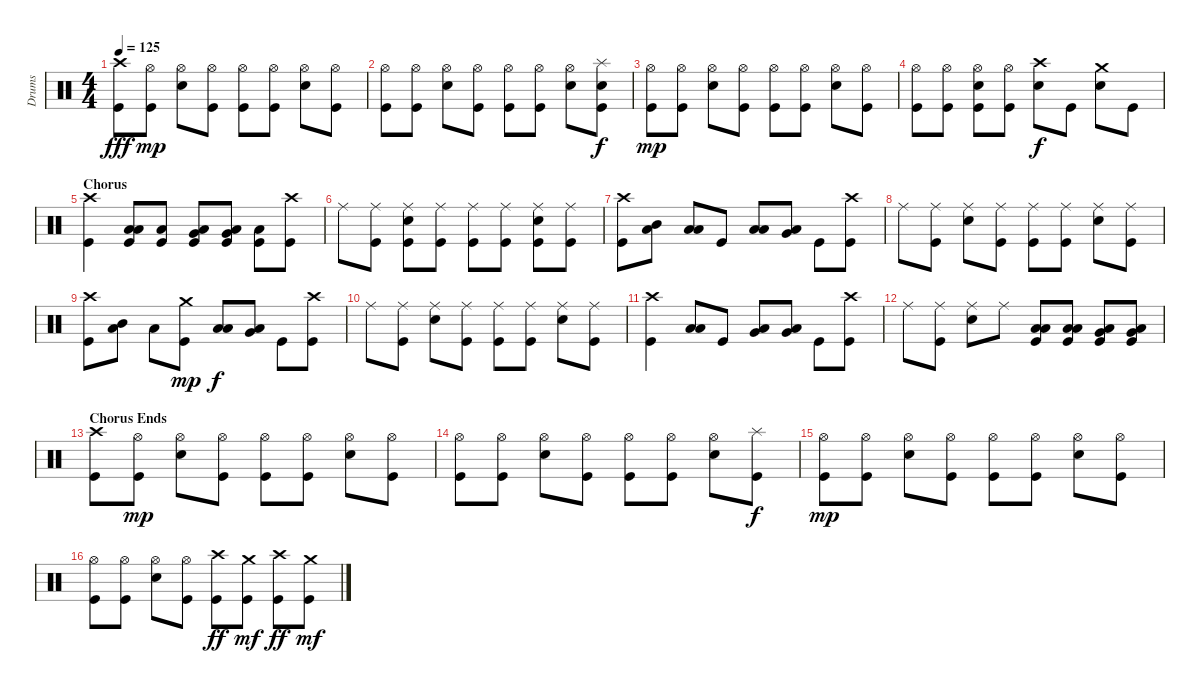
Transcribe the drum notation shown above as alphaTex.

\track ("Drums" "Drums") {instrument percussion}
\staff {score}
\articulation defaults
\ts (4 4)
\tempo 125
\clef neutral
\ks c
("Crash high (hit)" "Kick (hit)").8{dy fff} ("Hi-Hat (open)" "Kick (hit)").8{dy mp} ("Hi-Hat (open)" "Snare (hit) 2").8 ("Hi-Hat (open)" "Kick (hit)").8 ("Hi-Hat (open)" "Kick (hit)").8 ("Hi-Hat (open)" "Kick (hit)").8 ("Hi-Hat (open)" "Snare (hit) 2").8 ("Hi-Hat (open)" "Kick (hit)").8 |
("Hi-Hat (open)" "Kick (hit)").8 ("Hi-Hat (open)" "Kick (hit)").8 ("Hi-Hat (open)" "Snare (hit) 2").8 ("Hi-Hat (open)" "Kick (hit)").8 ("Hi-Hat (open)" "Kick (hit)").8 ("Hi-Hat (open)" "Kick (hit)").8 ("Hi-Hat (open)" "Snare (hit) 2").8 ("Splash (hit)" "Snare (hit) 2" "Kick (hit)").8{dy f} |
("Hi-Hat (open)" "Kick (hit)").8{dy mp} ("Hi-Hat (open)" "Kick (hit)").8 ("Hi-Hat (open)" "Snare (hit) 2").8 ("Hi-Hat (open)" "Kick (hit)").8 ("Hi-Hat (open)" "Kick (hit)").8 ("Hi-Hat (open)" "Kick (hit)").8 ("Hi-Hat (open)" "Snare (hit) 2").8 ("Hi-Hat (open)" "Kick (hit)").8 |
("Hi-Hat (open)" "Kick (hit)").8 ("Hi-Hat (open)" "Kick (hit)").8 ("Hi-Hat (open)" "Snare (hit) 2" "Kick (hit)").8 ("Hi-Hat (open)" "Kick (hit)").8 ("Crash high (hit)" "Snare (hit) 2").8{dy f} "Kick (hit)".8 ("Crash medium (hit)" "Snare (hit) 2").8 "Kick (hit)".8 |
\section ("" "Chorus")
("Crash high (hit)" "Kick (hit)").4 ("Low Tom (hit)" "Low Floor Tom (hit)" "Kick (hit)").8 ("Low Floor Tom (hit)" "Kick (hit)").8 ("Very Low Tom (hit)" "Low Floor Tom (hit)" "Kick (hit)").8 ("Very Low Tom (hit)" "Low Floor Tom (hit)" "Kick (hit)").8 ("Low Floor Tom (hit)" "Kick (hit)").8 ("Crash high (hit)" "Kick (hit)").8 |
"Ride (middle)".8 ("Ride (middle)" "Kick (hit)").8 ("Ride (middle)" "Snare (hit) 2" "Kick (hit)").8 ("Ride (middle)" "Kick (hit)").8 ("Ride (middle)" "Kick (hit)").8 ("Ride (middle)" "Kick (hit)").8 ("Ride (middle)" "Snare (hit) 2" "Kick (hit)").8 ("Ride (middle)" "Kick (hit)").8 |
("Crash high (hit)" "Kick (hit)").8 ("Mid Tom (hit)" "Low Floor Tom (hit)").8 ("Low Tom (hit)" "Low Floor Tom (hit)").8 "Kick (hit)".8 ("Low Tom (hit)" "Low Floor Tom (hit)").8 ("Very Low Tom (hit)" "Low Floor Tom (hit)").8 "Kick (hit)".8 ("Crash high (hit)" "Kick (hit)").8 |
"Ride (middle)".8 ("Ride (middle)" "Kick (hit)").8 ("Ride (middle)" "Snare (hit) 2").8 ("Ride (middle)" "Kick (hit)").8 ("Ride (middle)" "Kick (hit)").8 ("Ride (middle)" "Kick (hit)").8 ("Ride (middle)" "Snare (hit) 2").8 ("Ride (middle)" "Kick (hit)").8 |
("Crash high (hit)" "Kick (hit)").8 ("Mid Tom (hit)" "Low Floor Tom (hit)").8 "Low Floor Tom (hit)".8 ("Crash medium (hit)" "Kick (hit)").8{dy mp} ("Low Tom (hit)" "Low Floor Tom (hit)").8{dy f} ("Very Low Tom (hit)" "Low Floor Tom (hit)").8 "Kick (hit)".8 ("Crash high (hit)" "Kick (hit)").8 |
"Ride (middle)".8 ("Ride (middle)" "Kick (hit)").8 ("Ride (middle)" "Snare (hit) 2").8 ("Ride (middle)" "Kick (hit)").8 ("Ride (middle)" "Kick (hit)").8 ("Ride (middle)" "Kick (hit)").8 ("Ride (middle)" "Snare (hit) 2").8 ("Ride (middle)" "Kick (hit)").8 |
("Crash high (hit)" "Kick (hit)").4 ("Low Tom (hit)" "Low Floor Tom (hit)").8 "Kick (hit)".8 ("Very Low Tom (hit)" "Low Floor Tom (hit)").8 ("Very Low Tom (hit)" "Low Floor Tom (hit)").8 "Kick (hit)".8 ("Crash high (hit)" "Kick (hit)").8 |
"Ride (middle)".8 ("Ride (middle)" "Kick (hit)").8 ("Ride (middle)" "Snare (hit) 2").8 "Ride (middle)".8 ("Low Tom (hit)" "Low Floor Tom (hit)" "Kick (hit)").8 ("Low Tom (hit)" "Low Floor Tom (hit)" "Kick (hit)").8 ("Very Low Tom (hit)" "Low Floor Tom (hit)" "Kick (hit)").8 ("Very Low Tom (hit)" "Low Floor Tom (hit)" "Kick (hit)").8 |
\section ("" "Chorus Ends")
("Crash high (hit)" "Kick (hit)").8 ("Hi-Hat (open)" "Kick (hit)").8{dy mp} ("Hi-Hat (open)" "Snare (hit) 2").8 ("Hi-Hat (open)" "Kick (hit)").8 ("Hi-Hat (open)" "Kick (hit)").8 ("Hi-Hat (open)" "Kick (hit)").8 ("Hi-Hat (open)" "Snare (hit) 2").8 ("Hi-Hat (open)" "Kick (hit)").8 |
("Hi-Hat (open)" "Kick (hit)").8 ("Hi-Hat (open)" "Kick (hit)").8 ("Hi-Hat (open)" "Snare (hit) 2").8 ("Hi-Hat (open)" "Kick (hit)").8 ("Hi-Hat (open)" "Kick (hit)").8 ("Hi-Hat (open)" "Kick (hit)").8 ("Hi-Hat (open)" "Snare (hit) 2").8 ("Splash (hit)" "Kick (hit)").8{dy f} |
("Hi-Hat (open)" "Kick (hit)").8{dy mp} ("Hi-Hat (open)" "Kick (hit)").8 ("Hi-Hat (open)" "Snare (hit) 2").8 ("Hi-Hat (open)" "Kick (hit)").8 ("Hi-Hat (open)" "Kick (hit)").8 ("Hi-Hat (open)" "Kick (hit)").8 ("Hi-Hat (open)" "Snare (hit) 2").8 ("Hi-Hat (open)" "Kick (hit)").8 |
("Hi-Hat (open)" "Kick (hit)").8 ("Hi-Hat (open)" "Kick (hit)").8 ("Hi-Hat (open)" "Snare (hit) 2").8 ("Hi-Hat (open)" "Kick (hit)").8 ("Crash high (hit)" "Kick (hit)").8{dy ff} ("Crash medium (hit)" "Kick (hit)").8{dy mf} ("Crash high (hit)" "Kick (hit)").8{dy ff} ("Crash medium (hit)" "Kick (hit)").8{dy mf}
